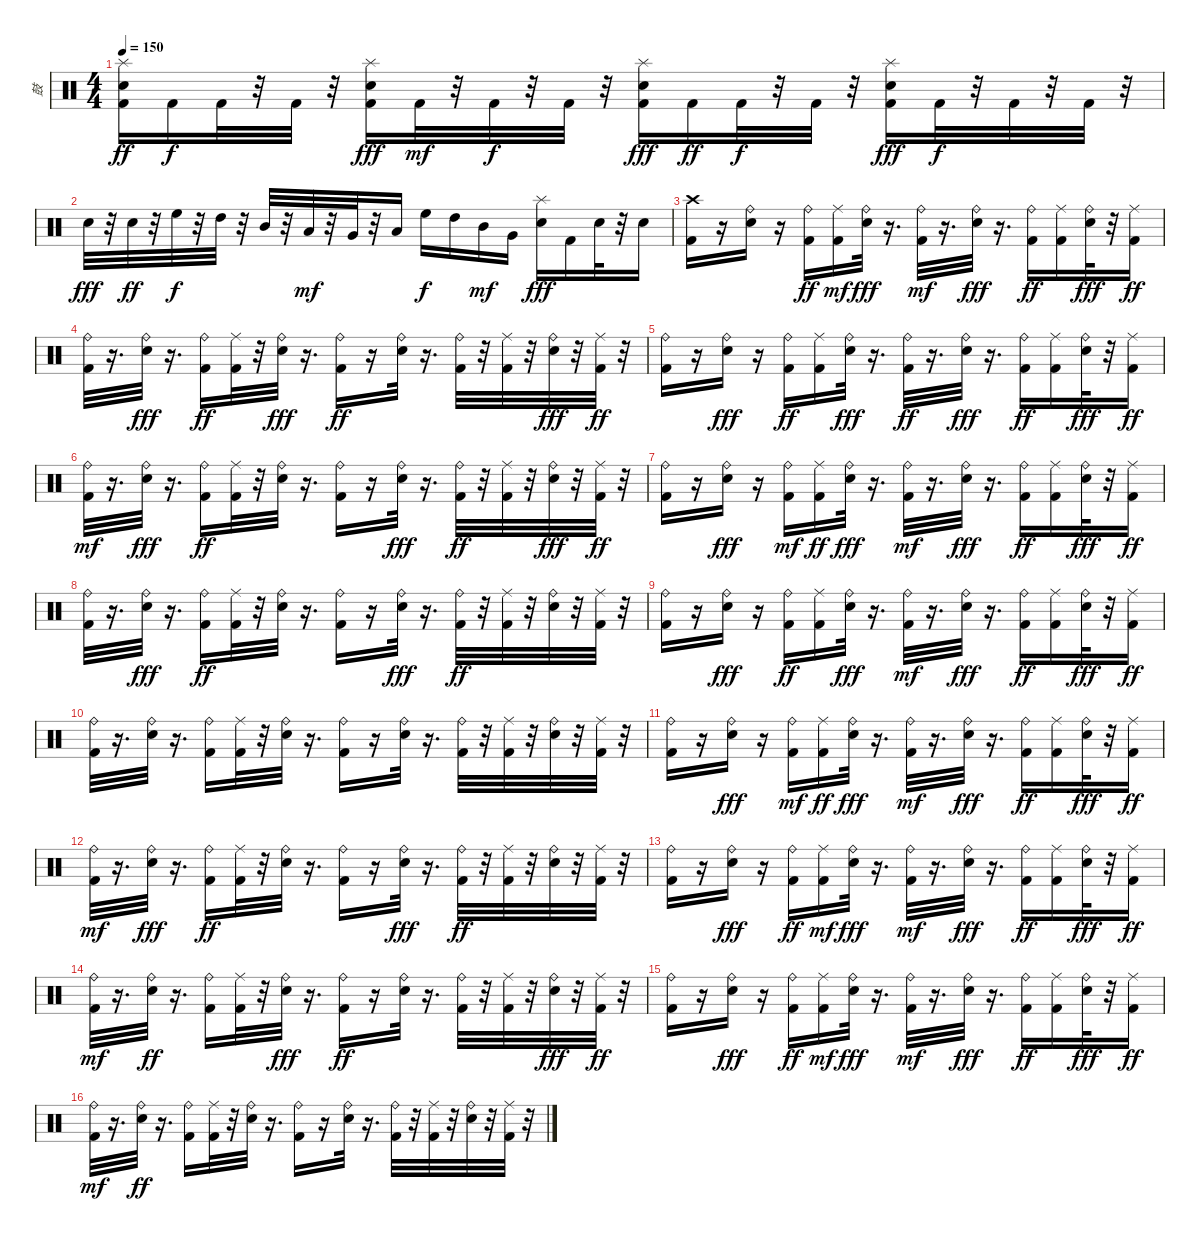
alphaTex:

\track ("鼓" "鼓") {instrument percussion}
\staff {score}
\articulation defaults
\ts (4 4)
\tempo 150
\clef neutral
\ks c
("Splash (hit)" "Electric Snare (hit)" "Kick (hit) 2").16{dy ff} "Kick (hit) 2".16{dy f} "Kick (hit) 2".32 r.32 "Kick (hit) 2".32 r.32 ("Kick (hit) 2" "Splash (hit)" "Electric Snare (hit)").16{dy fff} "Kick (hit) 2".32{dy mf} r.32 "Kick (hit) 2".32{dy f} r.32 "Kick (hit) 2".32 r.32 ("Kick (hit) 2" "Electric Snare (hit)" "Splash (hit)").16{dy fff} "Kick (hit) 2".16{dy ff} "Kick (hit) 2".32{dy f} r.32 "Kick (hit) 2".32 r.32 ("Splash (hit)" "Kick (hit) 2" "Electric Snare (hit)").16{dy fff} "Kick (hit) 2".32{dy f} r.32 "Kick (hit) 2".32 r.32 "Kick (hit) 2".32 r.32 |
"Electric Snare (hit)".32{dy fff} r.32 "Electric Snare (hit)".32{dy ff} r.32 "High Floor Tom (hit)".32{dy f} r.32 "High Tom (hit)".32 r.32 "Mid Tom (hit)".32 r.32 "Low Tom (hit)".32{dy mf} r.32 "Very Low Tom (hit)".32 r.32 "Low Floor Tom (hit)".16 "High Floor Tom (hit)".16{dy f} "High Tom (hit)".16 "Mid Tom (hit)".16{dy mf} "Very Low Tom (hit)".16 ("Splash (hit)" "Electric Snare (hit)").16{dy fff} "Kick (hit) 2".16 "Electric Snare (hit)".32 r.32 "Electric Snare (hit)".16 |
("Kick (hit) 2" "Crash high (hit)").16 r.16 ("Electric Snare (hit)" "Ride (bell)").16 r.16 ("Ride (bell)" "Kick (hit) 2").16{dy ff} ("Kick (hit) 2" "Ride (middle)").16{dy mf} ("Ride (bell)" "Electric Snare (hit)").32{dy fff} r.16{d} ("Kick (hit) 2" "Ride (bell)").32{dy mf} r.16{d} ("Electric Snare (hit)" "Ride (bell)").32{dy fff} r.16{d} ("Kick (hit) 2" "Ride (bell)").16{dy ff} ("Kick (hit) 2" "Ride (middle)").16 ("Electric Snare (hit)" "Ride (bell)").32{dy fff} r.32 ("Ride (middle)" "Kick (hit) 2").16{dy ff} |
("Ride (bell)" "Kick (hit) 2").32 r.16{d} ("Ride (bell)" "Electric Snare (hit)").32{dy fff} r.16{d} ("Ride (bell)" "Kick (hit) 2").16{dy ff} ("Kick (hit) 2" "Ride (middle)").32 r.32 ("Ride (bell)" "Electric Snare (hit)").32{dy fff} r.16{d} ("Kick (hit) 2" "Ride (bell)").16{dy ff} r.16 ("Electric Snare (hit)" "Ride (bell)").32 r.16{d} ("Ride (bell)" "Kick (hit) 2").32 r.32 ("Kick (hit) 2" "Ride (middle)").32 r.32 ("Ride (bell)" "Electric Snare (hit)").32{dy fff} r.32 ("Ride (middle)" "Kick (hit) 2").32{dy ff} r.32 |
("Ride (bell)" "Kick (hit) 2").16 r.16 ("Electric Snare (hit)" "Ride (bell)").16{dy fff} r.16 ("Ride (bell)" "Kick (hit) 2").16{dy ff} ("Ride (middle)" "Kick (hit) 2").16 ("Electric Snare (hit)" "Ride (bell)").32{dy fff} r.16{d} ("Ride (bell)" "Kick (hit) 2").32{dy ff} r.16{d} ("Ride (bell)" "Electric Snare (hit)").32{dy fff} r.16{d} ("Ride (bell)" "Kick (hit) 2").16{dy ff} ("Kick (hit) 2" "Ride (middle)").16 ("Ride (bell)" "Electric Snare (hit)").32{dy fff} r.32 ("Ride (middle)" "Kick (hit) 2").16{dy ff} |
("Kick (hit) 2" "Ride (bell)").32{dy mf} r.16{d} ("Ride (bell)" "Electric Snare (hit)").32{dy fff} r.16{d} ("Ride (bell)" "Kick (hit) 2").16{dy ff} ("Kick (hit) 2" "Ride (middle)").32 r.32 ("Electric Snare (hit)" "Ride (bell)").32 r.16{d} ("Kick (hit) 2" "Ride (bell)").16 r.16 ("Ride (bell)" "Electric Snare (hit)").32{dy fff} r.16{d} ("Kick (hit) 2" "Ride (bell)").32{dy ff} r.32 ("Kick (hit) 2" "Ride (middle)").32 r.32 ("Ride (bell)" "Electric Snare (hit)").32{dy fff} r.32 ("Kick (hit) 2" "Ride (middle)").32{dy ff} r.32 |
("Ride (bell)" "Kick (hit) 2").16 r.16 ("Electric Snare (hit)" "Ride (bell)").16{dy fff} r.16 ("Kick (hit) 2" "Ride (bell)").16{dy mf} ("Ride (middle)" "Kick (hit) 2").16{dy ff} ("Electric Snare (hit)" "Ride (bell)").32{dy fff} r.16{d} ("Kick (hit) 2" "Ride (bell)").32{dy mf} r.16{d} ("Ride (bell)" "Electric Snare (hit)").32{dy fff} r.16{d} ("Kick (hit) 2" "Ride (bell)").16{dy ff} ("Ride (middle)" "Kick (hit) 2").16 ("Electric Snare (hit)" "Ride (bell)").32{dy fff} r.32 ("Kick (hit) 2" "Ride (middle)").16{dy ff} |
("Ride (bell)" "Kick (hit) 2").32 r.16{d} ("Ride (bell)" "Electric Snare (hit)").32{dy fff} r.16{d} ("Kick (hit) 2" "Ride (bell)").16{dy ff} ("Kick (hit) 2" "Ride (middle)").32 r.32 ("Electric Snare (hit)" "Ride (bell)").32 r.16{d} ("Ride (bell)" "Kick (hit) 2").16 r.16 ("Ride (bell)" "Electric Snare (hit)").32{dy fff} r.16{d} ("Ride (bell)" "Kick (hit) 2").32{dy ff} r.32 ("Ride (middle)" "Kick (hit) 2").32 r.32 ("Electric Snare (hit)" "Ride (bell)").32 r.32 ("Ride (middle)" "Kick (hit) 2").32 r.32 |
("Ride (bell)" "Kick (hit) 2").16 r.16 ("Electric Snare (hit)" "Ride (bell)").16{dy fff} r.16 ("Ride (bell)" "Kick (hit) 2").16{dy ff} ("Ride (middle)" "Kick (hit) 2").16 ("Electric Snare (hit)" "Ride (bell)").32{dy fff} r.16{d} ("Kick (hit) 2" "Ride (bell)").32{dy mf} r.16{d} ("Electric Snare (hit)" "Ride (bell)").32{dy fff} r.16{d} ("Ride (bell)" "Kick (hit) 2").16{dy ff} ("Kick (hit) 2" "Ride (middle)").16 ("Electric Snare (hit)" "Ride (bell)").32{dy fff} r.32 ("Kick (hit) 2" "Ride (middle)").16{dy ff} |
("Ride (bell)" "Kick (hit) 2").32 r.16{d} ("Electric Snare (hit)" "Ride (bell)").32 r.16{d} ("Kick (hit) 2" "Ride (bell)").16 ("Ride (middle)" "Kick (hit) 2").32 r.32 ("Electric Snare (hit)" "Ride (bell)").32 r.16{d} ("Ride (bell)" "Kick (hit) 2").16 r.16 ("Electric Snare (hit)" "Ride (bell)").32 r.16{d} ("Ride (bell)" "Kick (hit) 2").32 r.32 ("Kick (hit) 2" "Ride (middle)").32 r.32 ("Electric Snare (hit)" "Ride (bell)").32 r.32 ("Ride (middle)" "Kick (hit) 2").32 r.32 |
("Kick (hit) 2" "Ride (bell)").16 r.16 ("Ride (bell)" "Electric Snare (hit)").16{dy fff} r.16 ("Kick (hit) 2" "Ride (bell)").16{dy mf} ("Ride (middle)" "Kick (hit) 2").16{dy ff} ("Ride (bell)" "Electric Snare (hit)").32{dy fff} r.16{d} ("Kick (hit) 2" "Ride (bell)").32{dy mf} r.16{d} ("Ride (bell)" "Electric Snare (hit)").32{dy fff} r.16{d} ("Kick (hit) 2" "Ride (bell)").16{dy ff} ("Ride (middle)" "Kick (hit) 2").16 ("Electric Snare (hit)" "Ride (bell)").32{dy fff} r.32 ("Ride (middle)" "Kick (hit) 2").16{dy ff} |
("Kick (hit) 2" "Ride (bell)").32{dy mf} r.16{d} ("Ride (bell)" "Electric Snare (hit)").32{dy fff} r.16{d} ("Kick (hit) 2" "Ride (bell)").16{dy ff} ("Ride (middle)" "Kick (hit) 2").32 r.32 ("Electric Snare (hit)" "Ride (bell)").32 r.16{d} ("Ride (bell)" "Kick (hit) 2").16 r.16 ("Ride (bell)" "Electric Snare (hit)").32{dy fff} r.16{d} ("Kick (hit) 2" "Ride (bell)").32{dy ff} r.32 ("Ride (middle)" "Kick (hit) 2").32 r.32 ("Electric Snare (hit)" "Ride (bell)").32 r.32 ("Ride (middle)" "Kick (hit) 2").32 r.32 |
("Ride (bell)" "Kick (hit) 2").16 r.16 ("Ride (bell)" "Electric Snare (hit)").16{dy fff} r.16 ("Ride (bell)" "Kick (hit) 2").16{dy ff} ("Kick (hit) 2" "Ride (middle)").16{dy mf} ("Ride (bell)" "Electric Snare (hit)").32{dy fff} r.16{d} ("Kick (hit) 2" "Ride (bell)").32{dy mf} r.16{d} ("Ride (bell)" "Electric Snare (hit)").32{dy fff} r.16{d} ("Kick (hit) 2" "Ride (bell)").16{dy ff} ("Ride (middle)" "Kick (hit) 2").16 ("Ride (bell)" "Electric Snare (hit)").32{dy fff} r.32 ("Kick (hit) 2" "Ride (middle)").16{dy ff} |
("Kick (hit) 2" "Ride (bell)").32{dy mf} r.16{d} ("Electric Snare (hit)" "Ride (bell)").32{dy ff} r.16{d} ("Ride (bell)" "Kick (hit) 2").16 ("Kick (hit) 2" "Ride (middle)").32 r.32 ("Ride (bell)" "Electric Snare (hit)").32{dy fff} r.16{d} ("Kick (hit) 2" "Ride (bell)").16{dy ff} r.16 ("Electric Snare (hit)" "Ride (bell)").32 r.16{d} ("Ride (bell)" "Kick (hit) 2").32 r.32 ("Kick (hit) 2" "Ride (middle)").32 r.32 ("Ride (bell)" "Electric Snare (hit)").32{dy fff} r.32 ("Kick (hit) 2" "Ride (middle)").32{dy ff} r.32 |
("Ride (bell)" "Kick (hit) 2").16 r.16 ("Electric Snare (hit)" "Ride (bell)").16{dy fff} r.16 ("Ride (bell)" "Kick (hit) 2").16{dy ff} ("Kick (hit) 2" "Ride (middle)").16{dy mf} ("Electric Snare (hit)" "Ride (bell)").32{dy fff} r.16{d} ("Kick (hit) 2" "Ride (bell)").32{dy mf} r.16{d} ("Electric Snare (hit)" "Ride (bell)").32{dy fff} r.16{d} ("Ride (bell)" "Kick (hit) 2").16{dy ff} ("Kick (hit) 2" "Ride (middle)").16 ("Ride (bell)" "Electric Snare (hit)").32{dy fff} r.32 ("Ride (middle)" "Kick (hit) 2").16{dy ff} |
("Kick (hit) 2" "Ride (bell)").32{dy mf} r.16{d} ("Electric Snare (hit)" "Ride (bell)").32{dy ff} r.16{d} ("Ride (bell)" "Kick (hit) 2").16 ("Ride (middle)" "Kick (hit) 2").32 r.32 ("Electric Snare (hit)" "Ride (bell)").32 r.16{d} ("Kick (hit) 2" "Ride (bell)").16 r.16 ("Electric Snare (hit)" "Ride (bell)").32 r.16{d} ("Kick (hit) 2" "Ride (bell)").32 r.32 ("Kick (hit) 2" "Ride (middle)").32 r.32 ("Electric Snare (hit)" "Ride (bell)").32 r.32 ("Ride (middle)" "Kick (hit) 2").32 r.32
